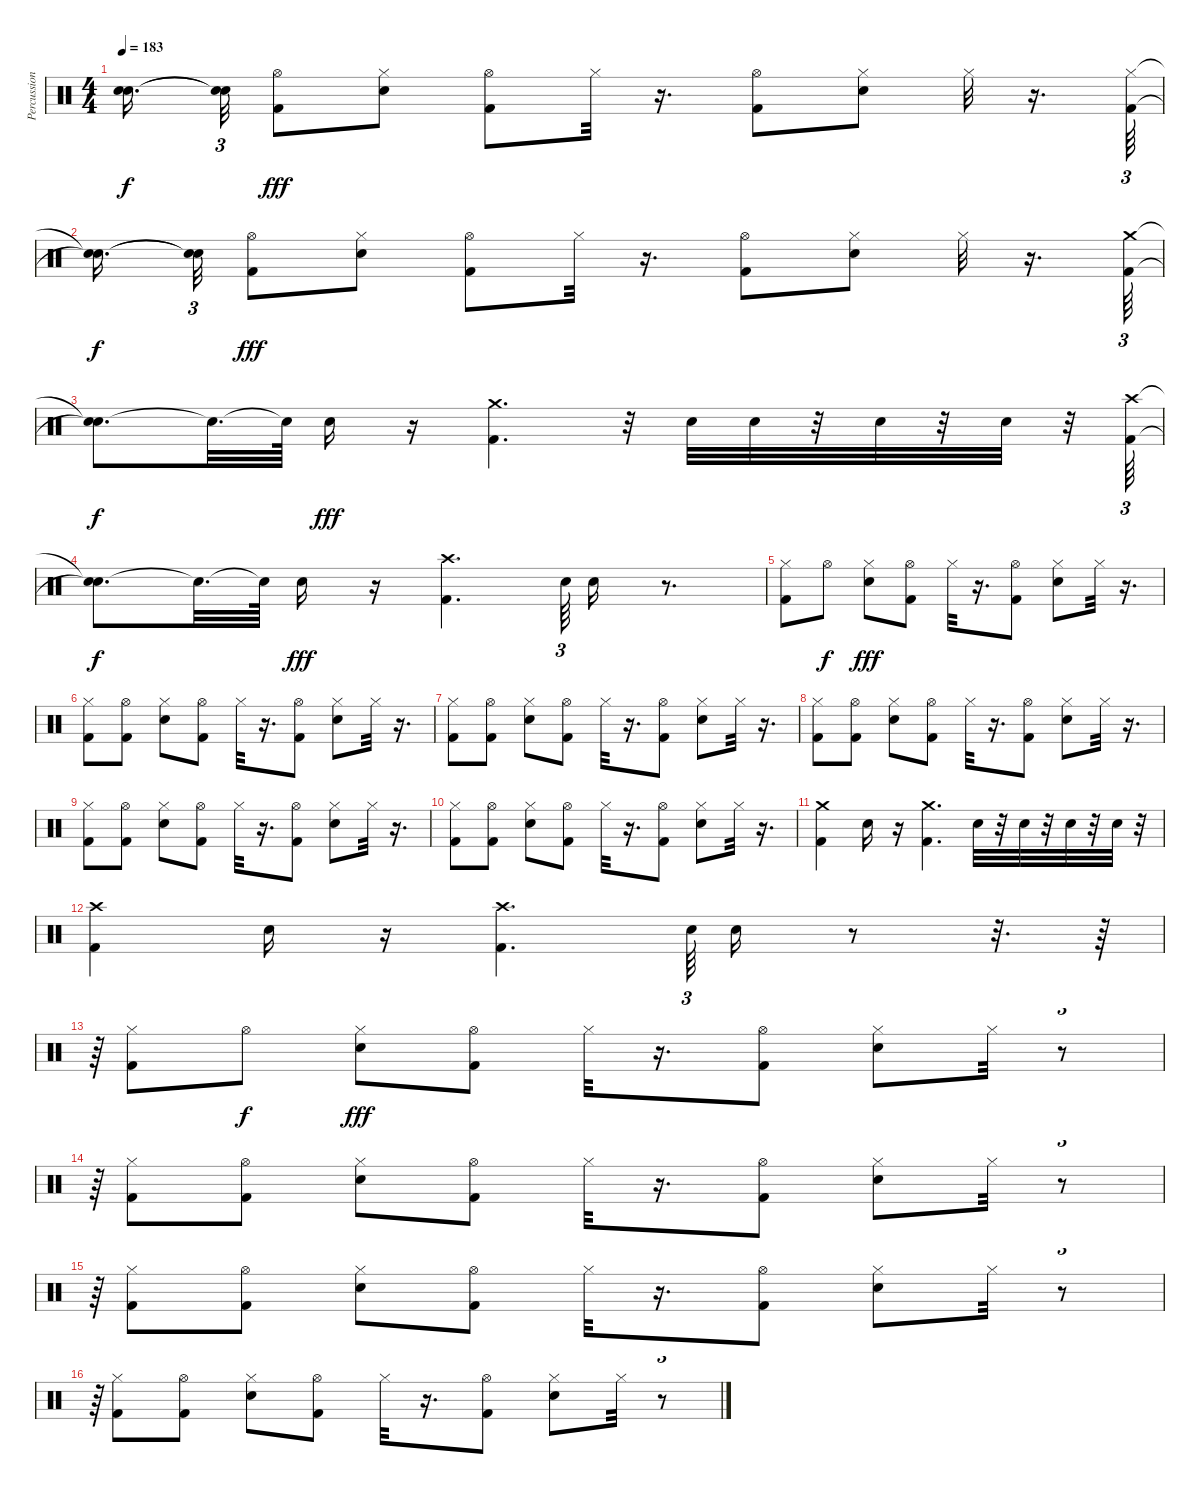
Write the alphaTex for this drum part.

\track ("Percussioni" "Percussion") {instrument percussion}
\staff {score}
\articulation defaults
\ts (4 4)
\tempo 183
\clef neutral
\ks c
("Snare (hit)"{t} "Snare (hit)"{t}).16{d dy f beam splitsecondary} ("Snare (hit)"{t} "Snare (hit)"{t}).32{tu (3 2)} ("Hi-Hat (open)" "Kick (hit) 2").8{dy fff} ("Hi-Hat (closed)" "Snare (hit) 2").8 ("Hi-Hat (open)" "Kick (hit) 2").8 "Hi-Hat (closed)".32 r.16{d} ("Hi-Hat (open)" "Kick (hit) 2").8 ("Hi-Hat (closed)" "Snare (hit) 2").8 "Hi-Hat (closed)".32 r.16{d} ("Hi-Hat (closed)" "Kick (hit) 2").64{tu (3 2)} |
("Snare (hit)"{t} "Snare (hit)"{t}).16{d dy f beam splitsecondary} ("Snare (hit)"{t} "Snare (hit)"{t}).32{tu (3 2)} ("Hi-Hat (open)" "Kick (hit) 2").8{dy fff} ("Hi-Hat (closed)" "Snare (hit) 2").8 ("Hi-Hat (open)" "Kick (hit) 2").8 "Hi-Hat (closed)".32 r.16{d} ("Hi-Hat (open)" "Kick (hit) 2").8 ("Hi-Hat (closed)" "Snare (hit) 2").8 "Hi-Hat (closed)".32 r.16{d} ("Crash medium (hit)" "Kick (hit) 2").64{tu (3 2)} |
("Snare (hit)"{t} "Snare (hit)"{t}).8{d dy f} "Snare (hit)"{t}.32{d} "Snare (hit)"{t}.64 "Snare (hit) 2".16{dy fff} r.16 ("Crash medium (hit)" "Kick (hit) 2").4{d} r.32 "Snare (hit) 2".32 "Snare (hit) 2".32 r.32 "Snare (hit) 2".32 r.32 "Snare (hit) 2".32 r.32 ("Crash high (hit)" "Kick (hit) 2").64{tu (3 2)} |
("Snare (hit)"{t} "Snare (hit)"{t}).8{d dy f} "Snare (hit)"{t}.32{d} "Snare (hit)"{t}.64 "Snare (hit) 2".16{dy fff} r.16 ("Crash high (hit)" "Kick (hit) 2").4{d} "Snare (hit) 2".64{tu (3 2)} "Snare (hit) 2".16 r.8{d} |
("Hi-Hat (closed)" "Kick (hit) 2").8 "Hi-Hat (open)".8{dy f} ("Hi-Hat (closed)" "Snare (hit) 2").8{dy fff} ("Hi-Hat (open)" "Kick (hit) 2").8 "Hi-Hat (closed)".32 r.16{d} ("Hi-Hat (open)" "Kick (hit) 2").8 ("Hi-Hat (closed)" "Snare (hit) 2").8 "Hi-Hat (closed)".32 r.16{d} |
("Hi-Hat (closed)" "Kick (hit) 2").8 ("Hi-Hat (open)" "Kick (hit) 2").8 ("Hi-Hat (closed)" "Snare (hit) 2").8 ("Hi-Hat (open)" "Kick (hit) 2").8 "Hi-Hat (closed)".32 r.16{d} ("Hi-Hat (open)" "Kick (hit) 2").8 ("Hi-Hat (closed)" "Snare (hit) 2").8 "Hi-Hat (closed)".32 r.16{d} |
("Hi-Hat (closed)" "Kick (hit) 2").8 ("Hi-Hat (open)" "Kick (hit) 2").8 ("Hi-Hat (closed)" "Snare (hit) 2").8 ("Hi-Hat (open)" "Kick (hit) 2").8 "Hi-Hat (closed)".32 r.16{d} ("Hi-Hat (open)" "Kick (hit) 2").8 ("Hi-Hat (closed)" "Snare (hit) 2").8 "Hi-Hat (closed)".32 r.16{d} |
("Hi-Hat (closed)" "Kick (hit) 2").8 ("Hi-Hat (open)" "Kick (hit) 2").8 ("Hi-Hat (closed)" "Snare (hit) 2").8 ("Hi-Hat (open)" "Kick (hit) 2").8 "Hi-Hat (closed)".32 r.16{d} ("Hi-Hat (open)" "Kick (hit) 2").8 ("Hi-Hat (closed)" "Snare (hit) 2").8 "Hi-Hat (closed)".32 r.16{d} |
("Hi-Hat (closed)" "Kick (hit) 2").8 ("Hi-Hat (open)" "Kick (hit) 2").8 ("Hi-Hat (closed)" "Snare (hit) 2").8 ("Hi-Hat (open)" "Kick (hit) 2").8 "Hi-Hat (closed)".32 r.16{d} ("Hi-Hat (open)" "Kick (hit) 2").8 ("Hi-Hat (closed)" "Snare (hit) 2").8 "Hi-Hat (closed)".32 r.16{d} |
("Hi-Hat (closed)" "Kick (hit) 2").8 ("Hi-Hat (open)" "Kick (hit) 2").8 ("Hi-Hat (closed)" "Snare (hit) 2").8 ("Hi-Hat (open)" "Kick (hit) 2").8 "Hi-Hat (closed)".32 r.16{d} ("Hi-Hat (open)" "Kick (hit) 2").8 ("Hi-Hat (closed)" "Snare (hit) 2").8 "Hi-Hat (closed)".32 r.16{d} |
("Crash medium (hit)" "Kick (hit) 2").4 "Snare (hit) 2".16 r.16 ("Crash medium (hit)" "Kick (hit) 2").4{d} "Snare (hit) 2".32 r.32 "Snare (hit) 2".32 r.32 "Snare (hit) 2".32 r.32 "Snare (hit) 2".32 r.32 |
("Crash high (hit)" "Kick (hit) 2").4 "Snare (hit) 2".16 r.16 ("Crash high (hit)" "Kick (hit) 2").4{d} "Snare (hit) 2".64{tu (3 2)} "Snare (hit) 2".16 r.8 r.32{d} r.64 |
r.64{tu (3 2)} ("Hi-Hat (closed)" "Kick (hit) 2").8 "Hi-Hat (open)".8{dy f} ("Hi-Hat (closed)" "Snare (hit) 2").8{dy fff} ("Hi-Hat (open)" "Kick (hit) 2").8 "Hi-Hat (closed)".32 r.16{d} ("Hi-Hat (open)" "Kick (hit) 2").8 ("Hi-Hat (closed)" "Snare (hit) 2").8 "Hi-Hat (closed)".32 r.8{tu (3 2)} |
r.64{tu (3 2)} ("Hi-Hat (closed)" "Kick (hit) 2").8 ("Hi-Hat (open)" "Kick (hit) 2").8 ("Hi-Hat (closed)" "Snare (hit) 2").8 ("Hi-Hat (open)" "Kick (hit) 2").8 "Hi-Hat (closed)".32 r.16{d} ("Hi-Hat (open)" "Kick (hit) 2").8 ("Hi-Hat (closed)" "Snare (hit) 2").8 "Hi-Hat (closed)".32 r.8{tu (3 2)} |
r.64{tu (3 2)} ("Hi-Hat (closed)" "Kick (hit) 2").8 ("Hi-Hat (open)" "Kick (hit) 2").8 ("Hi-Hat (closed)" "Snare (hit) 2").8 ("Hi-Hat (open)" "Kick (hit) 2").8 "Hi-Hat (closed)".32 r.16{d} ("Hi-Hat (open)" "Kick (hit) 2").8 ("Hi-Hat (closed)" "Snare (hit) 2").8 "Hi-Hat (closed)".32 r.8{tu (3 2)} |
r.64{tu (3 2)} ("Hi-Hat (closed)" "Kick (hit) 2").8 ("Hi-Hat (open)" "Kick (hit) 2").8 ("Hi-Hat (closed)" "Snare (hit) 2").8 ("Hi-Hat (open)" "Kick (hit) 2").8 "Hi-Hat (closed)".32 r.16{d} ("Hi-Hat (open)" "Kick (hit) 2").8 ("Hi-Hat (closed)" "Snare (hit) 2").8 "Hi-Hat (closed)".32 r.8{tu (3 2)}
